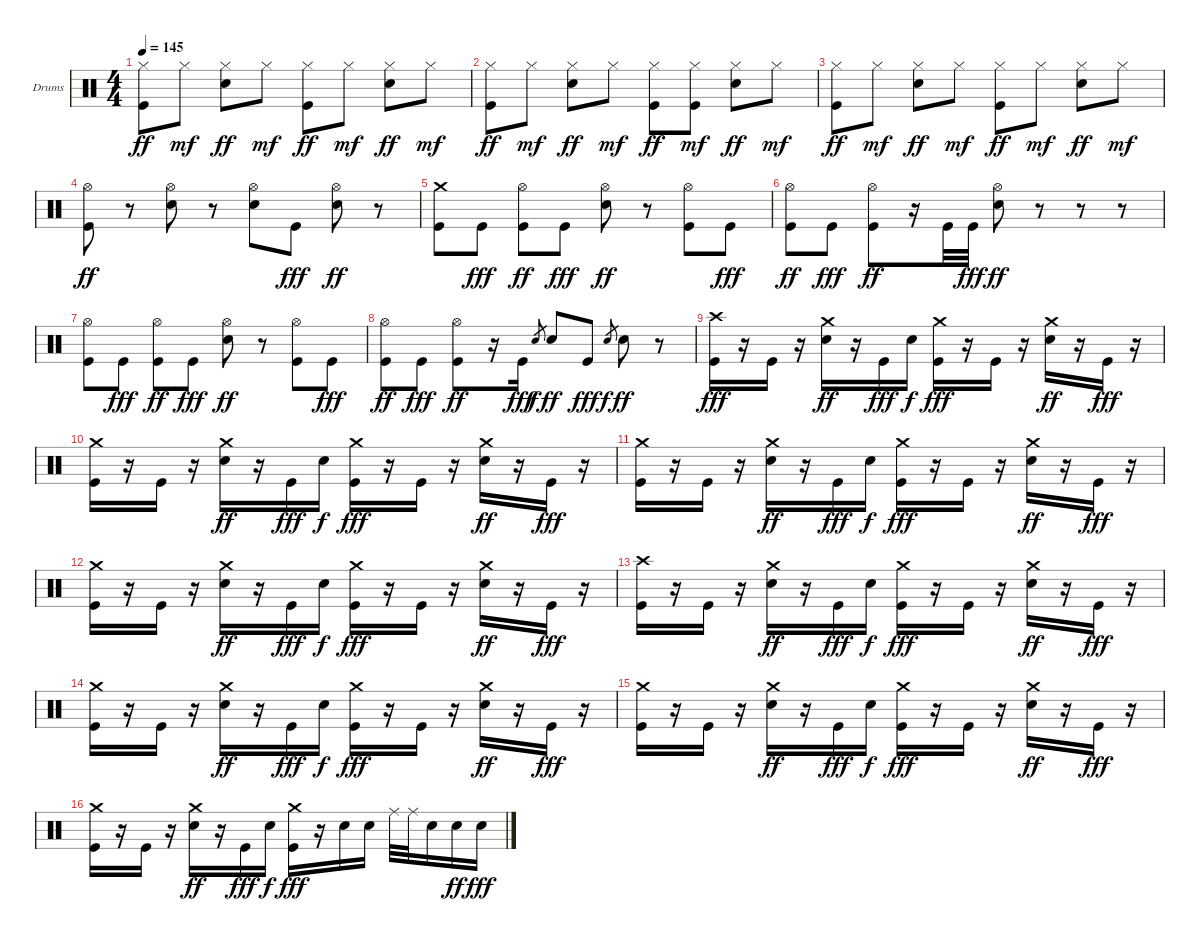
\defaultSystemsLayout 4
\bracketExtendMode groupsimilarinstruments
\firstSystemTrackNameOrientation horizontal
\otherSystemsTrackNameOrientation horizontal
\track ("Drumkit" "Drums") {instrument percussion}
\staff {score}
\articulation defaults
\ts (4 4)
\tempo 145
\clef neutral
\scale
0.333333
\ks c
("Hi-Hat (closed)" "Kick (hit)").8{dy ff} "Hi-Hat (closed)".8{dy mf} ("Hi-Hat (closed)" "Snare (hit) 2").8{dy ff} "Hi-Hat (closed)".8{dy mf} ("Hi-Hat (closed)" "Kick (hit)").8{dy ff} "Hi-Hat (closed)".8{dy mf} ("Hi-Hat (closed)" "Snare (hit) 2").8{dy ff} "Hi-Hat (closed)".8{dy mf} |
\scale
0.333333 ("Hi-Hat (closed)" "Kick (hit)").8{dy ff} "Hi-Hat (closed)".8{dy mf} ("Hi-Hat (closed)" "Snare (hit) 2").8{dy ff} "Hi-Hat (closed)".8{dy mf} ("Hi-Hat (closed)" "Kick (hit)").8{dy ff} ("Hi-Hat (closed)" "Kick (hit)").8{dy mf} ("Hi-Hat (closed)" "Snare (hit) 2").8{dy ff} "Hi-Hat (closed)".8{dy mf} |
\scale
0.333333 ("Hi-Hat (closed)" "Kick (hit)").8{dy ff} "Hi-Hat (closed)".8{dy mf} ("Hi-Hat (closed)" "Snare (hit) 2").8{dy ff} "Hi-Hat (closed)".8{dy mf} ("Hi-Hat (closed)" "Kick (hit)").8{dy ff} "Hi-Hat (closed)".8{dy mf} ("Hi-Hat (closed)" "Snare (hit) 2").8{dy ff} "Hi-Hat (closed)".8{dy mf} |
\scale
0.333333 ("Hi-Hat (open)" "Kick (hit)").8{dy ff} r.8 ("Hi-Hat (open)" "Snare (hit) 2").8 r.8 ("Hi-Hat (open)" "Snare (hit) 2").8 "Kick (hit)".8{dy fff} ("Hi-Hat (open)" "Snare (hit) 2").8{dy ff} r.8 |
\scale
0.333333 ("Crash medium (hit)" "Kick (hit)").8 "Kick (hit)".8{dy fff} ("Hi-Hat (open)" "Kick (hit)").8{dy ff} "Kick (hit)".8{dy fff} ("Hi-Hat (open)" "Snare (hit) 2").8{dy ff} r.8 ("Hi-Hat (open)" "Kick (hit)").8 "Kick (hit)".8{dy fff} |
\scale
0.333333 ("Hi-Hat (open)" "Kick (hit)").8{dy ff} "Kick (hit)".8{dy fff} ("Hi-Hat (open)" "Kick (hit)").8{dy ff} r.16 "Kick (hit)".32 "Kick (hit)".32{dy fff} ("Hi-Hat (open)" "Snare (hit) 2").8{dy ff} r.8 r.8 r.8 |
\scale
0.333333 ("Hi-Hat (open)" "Kick (hit)").8 "Kick (hit)".8{dy fff} ("Hi-Hat (open)" "Kick (hit)").8{dy ff} "Kick (hit)".8{dy fff} ("Hi-Hat (open)" "Snare (hit) 2").8{dy ff} r.8 ("Hi-Hat (open)" "Kick (hit)").8 "Kick (hit)".8{dy fff} |
\scale
0.333333 ("Hi-Hat (open)" "Kick (hit)").8{dy ff} "Kick (hit)".8{dy fff} ("Hi-Hat (open)" "Kick (hit)").8{dy ff} r.16 "Kick (hit)".16{dy fff} "Snare (hit) 2".8{gr dy f} "Snare (hit) 2".8{dy ff} "Kick (hit)".8{dy fff} "Snare (hit) 2".8{gr dy f} "Snare (hit) 2".8{dy ff} r.8 |
\scale
0.333333 ("Kick (hit)" "Crash high (hit)").16{dy fff} r.16 "Kick (hit)".16 r.16 ("Snare (hit) 2" "Crash medium (hit)").16{dy ff} r.16 "Kick (hit)".16{dy fff} "Snare (hit) 2".16{dy f} ("Kick (hit)" "Crash medium (hit)").16{dy fff} r.16 "Kick (hit)".16 r.16 ("Snare (hit) 2" "Crash medium (hit)").16{dy ff} r.16 "Kick (hit)".16{dy fff} r.16 |
\scale
0.333333 ("Kick (hit)" "Crash medium (hit)").16 r.16 "Kick (hit)".16 r.16 ("Snare (hit) 2" "Crash medium (hit)").16{dy ff} r.16 "Kick (hit)".16{dy fff} "Snare (hit) 2".16{dy f} ("Kick (hit)" "Crash medium (hit)").16{dy fff} r.16 "Kick (hit)".16 r.16 ("Snare (hit) 2" "Crash medium (hit)").16{dy ff} r.16 "Kick (hit)".16{dy fff} r.16 |
\scale
0.333333 ("Kick (hit)" "Crash medium (hit)").16 r.16 "Kick (hit)".16 r.16 ("Snare (hit) 2" "Crash medium (hit)").16{dy ff} r.16 "Kick (hit)".16{dy fff} "Snare (hit) 2".16{dy f} ("Kick (hit)" "Crash medium (hit)").16{dy fff} r.16 "Kick (hit)".16 r.16 ("Snare (hit) 2" "Crash medium (hit)").16{dy ff} r.16 "Kick (hit)".16{dy fff} r.16 |
\scale
0.333333 ("Kick (hit)" "Crash medium (hit)").16 r.16 "Kick (hit)".16 r.16 ("Snare (hit) 2" "Crash medium (hit)").16{dy ff} r.16 "Kick (hit)".16{dy fff} "Snare (hit) 2".16{dy f} ("Kick (hit)" "Crash medium (hit)").16{dy fff} r.16 "Kick (hit)".16 r.16 ("Snare (hit) 2" "Crash medium (hit)").16{dy ff} r.16 "Kick (hit)".16{dy fff} r.16 |
\scale
0.333333 ("Kick (hit)" "Crash high (hit)").16 r.16 "Kick (hit)".16 r.16 ("Snare (hit) 2" "Crash medium (hit)").16{dy ff} r.16 "Kick (hit)".16{dy fff} "Snare (hit) 2".16{dy f} ("Kick (hit)" "Crash medium (hit)").16{dy fff} r.16 "Kick (hit)".16 r.16 ("Snare (hit) 2" "Crash medium (hit)").16{dy ff} r.16 "Kick (hit)".16{dy fff} r.16 |
\scale
0.333333 ("Kick (hit)" "Crash medium (hit)").16 r.16 "Kick (hit)".16 r.16 ("Snare (hit) 2" "Crash medium (hit)").16{dy ff} r.16 "Kick (hit)".16{dy fff} "Snare (hit) 2".16{dy f} ("Kick (hit)" "Crash medium (hit)").16{dy fff} r.16 "Kick (hit)".16 r.16 ("Snare (hit) 2" "Crash medium (hit)").16{dy ff} r.16 "Kick (hit)".16{dy fff} r.16 |
\scale
0.333333 ("Kick (hit)" "Crash medium (hit)").16 r.16 "Kick (hit)".16 r.16 ("Snare (hit) 2" "Crash medium (hit)").16{dy ff} r.16 "Kick (hit)".16{dy fff} "Snare (hit) 2".16{dy f} ("Kick (hit)" "Crash medium (hit)").16{dy fff} r.16 "Kick (hit)".16 r.16 ("Snare (hit) 2" "Crash medium (hit)").16{dy ff} r.16 "Kick (hit)".16{dy fff} r.16 |
\scale
0.333333 ("Kick (hit)" "Crash medium (hit)").16 r.16 "Kick (hit)".16 r.16 ("Snare (hit) 2" "Crash medium (hit)").16{dy ff} r.16 "Kick (hit)".16{dy fff} "Snare (hit) 2".16{dy f} ("Kick (hit)" "Crash medium (hit)").16{dy fff} r.16 "Snare (hit) 2".16 "Snare (hit) 2".16 "Ride (middle)".32 "Ride (middle)".32 "Snare (hit) 2".16 "Snare (hit) 2".16{dy ff} "Snare (hit) 2".16{dy fff}
